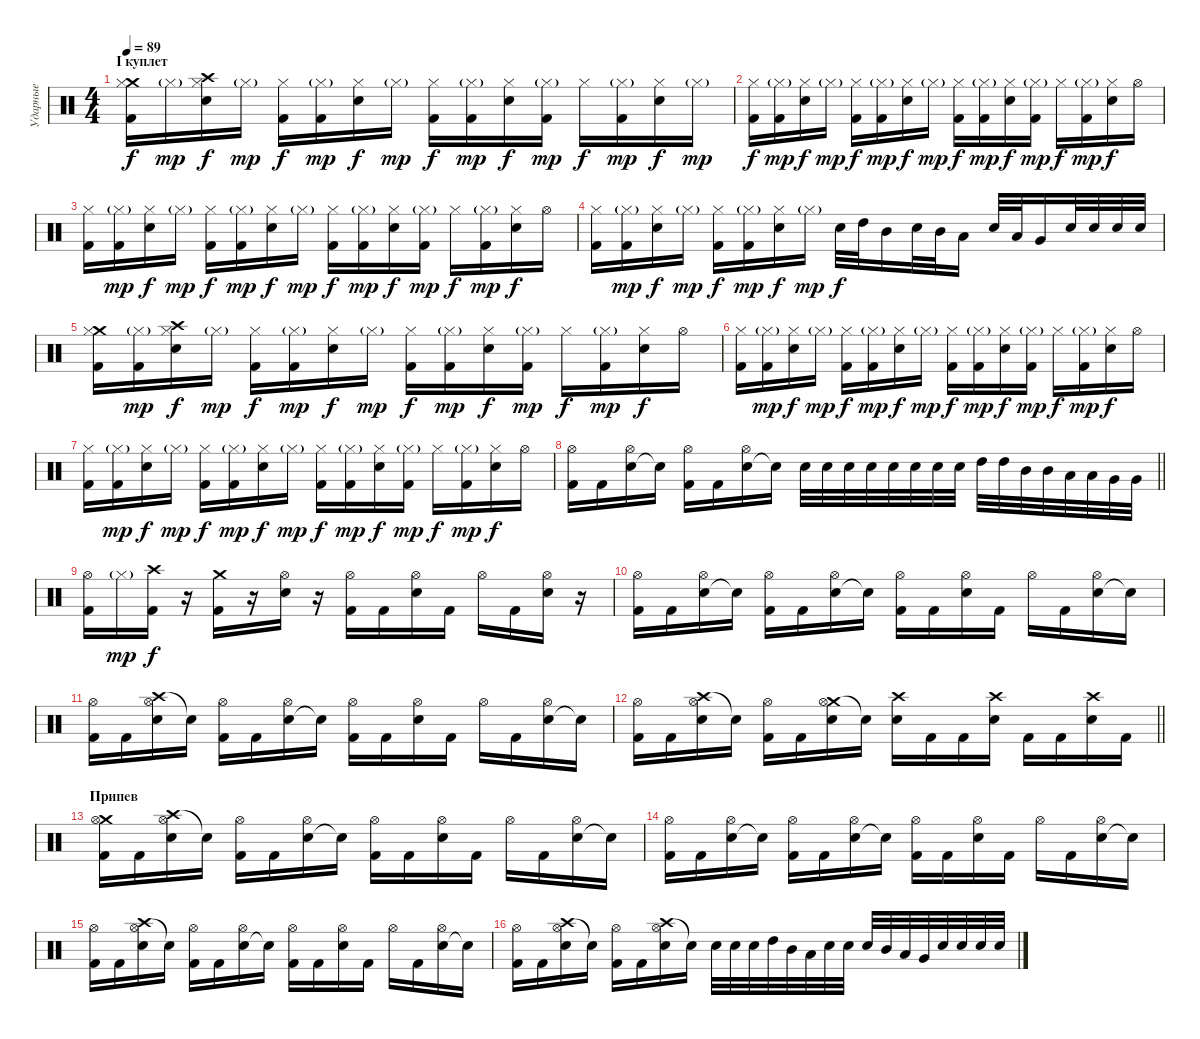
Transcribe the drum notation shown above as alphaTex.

\track ("Ударные" "Ударные") {instrument percussion}
\staff {score}
\articulation defaults
\ts (4 4)
\section ("" "I куплет")
\tempo 89
\clef neutral
\ks c
("Crash medium (hit)" "Hi-Hat (closed)" "Kick (hit) 2").16{dy f} "Hi-Hat (closed)"{g}.16{dy mp} ("Crash high (hit)" "Hi-Hat (closed)" "Electric Snare (hit)").16{dy f} "Hi-Hat (closed)"{g}.16{dy mp} ("Hi-Hat (closed)" "Kick (hit) 2").16{dy f} ("Hi-Hat (closed)"{g} "Kick (hit) 2").16{dy mp} ("Hi-Hat (closed)" "Electric Snare (hit)").16{dy f} "Hi-Hat (closed)"{g}.16{dy mp} ("Hi-Hat (closed)" "Kick (hit) 2").16{dy f} ("Hi-Hat (closed)"{g} "Kick (hit) 2").16{dy mp} ("Hi-Hat (closed)" "Electric Snare (hit)").16{dy f} ("Hi-Hat (closed)"{g} "Kick (hit) 2").16{dy mp} "Hi-Hat (closed)".16{dy f} ("Hi-Hat (closed)"{g} "Kick (hit) 2").16{dy mp} ("Hi-Hat (closed)" "Electric Snare (hit)").16{dy f} "Hi-Hat (closed)"{g}.16{dy mp} |
("Hi-Hat (closed)" "Kick (hit) 2").16{dy f} ("Hi-Hat (closed)"{g} "Kick (hit) 2").16{dy mp} ("Hi-Hat (closed)" "Electric Snare (hit)").16{dy f} "Hi-Hat (closed)"{g}.16{dy mp} ("Hi-Hat (closed)" "Kick (hit) 2").16{dy f} ("Hi-Hat (closed)"{g} "Kick (hit) 2").16{dy mp} ("Hi-Hat (closed)" "Electric Snare (hit)").16{dy f} "Hi-Hat (closed)"{g}.16{dy mp} ("Hi-Hat (closed)" "Kick (hit) 2").16{dy f} ("Hi-Hat (closed)"{g} "Kick (hit) 2").16{dy mp} ("Hi-Hat (closed)" "Electric Snare (hit)").16{dy f} ("Hi-Hat (closed)"{g} "Kick (hit) 2").16{dy mp} "Hi-Hat (closed)".16{dy f} ("Hi-Hat (closed)"{g} "Kick (hit) 2").16{dy mp} ("Hi-Hat (closed)" "Electric Snare (hit)").16{dy f} "Hi-Hat (open)".16 |
("Hi-Hat (closed)" "Kick (hit) 2").16 ("Hi-Hat (closed)"{g} "Kick (hit) 2").16{dy mp} ("Hi-Hat (closed)" "Electric Snare (hit)").16{dy f} "Hi-Hat (closed)"{g}.16{dy mp} ("Hi-Hat (closed)" "Kick (hit) 2").16{dy f} ("Hi-Hat (closed)"{g} "Kick (hit) 2").16{dy mp} ("Hi-Hat (closed)" "Electric Snare (hit)").16{dy f} "Hi-Hat (closed)"{g}.16{dy mp} ("Hi-Hat (closed)" "Kick (hit) 2").16{dy f} ("Hi-Hat (closed)"{g} "Kick (hit) 2").16{dy mp} ("Hi-Hat (closed)" "Electric Snare (hit)").16{dy f} ("Hi-Hat (closed)"{g} "Kick (hit) 2").16{dy mp} "Hi-Hat (closed)".16{dy f} ("Hi-Hat (closed)"{g} "Kick (hit) 2").16{dy mp} ("Hi-Hat (closed)" "Electric Snare (hit)").16{dy f} "Hi-Hat (open)".16 |
("Hi-Hat (closed)" "Kick (hit) 2").16 ("Hi-Hat (closed)"{g} "Kick (hit) 2").16{dy mp} ("Hi-Hat (closed)" "Electric Snare (hit)").16{dy f} "Hi-Hat (closed)"{g}.16{dy mp} ("Hi-Hat (closed)" "Kick (hit) 2").16{dy f} ("Hi-Hat (closed)"{g} "Kick (hit) 2").16{dy mp} ("Hi-Hat (closed)" "Electric Snare (hit)").16{dy f} "Hi-Hat (closed)"{g}.16{dy mp} "Electric Snare (hit)".32{dy f} "High Tom (hit)".32 "Mid Tom (hit)".16 "Electric Snare (hit)".32 "Mid Tom (hit)".32 "Low Tom (hit)".16 "Electric Snare (hit)".32 "Low Tom (hit)".32 "Very Low Tom (hit)".16 "Electric Snare (hit)".32 "Electric Snare (hit)".32 "Electric Snare (hit)".32 "Electric Snare (hit)".32 |
("Crash medium (hit)" "Hi-Hat (closed)" "Kick (hit) 2").16 ("Hi-Hat (closed)"{g} "Kick (hit) 2").16{dy mp} ("Crash high (hit)" "Hi-Hat (closed)" "Electric Snare (hit)").16{dy f} "Hi-Hat (closed)"{g}.16{dy mp} ("Hi-Hat (closed)" "Kick (hit) 2").16{dy f} ("Hi-Hat (closed)"{g} "Kick (hit) 2").16{dy mp} ("Hi-Hat (closed)" "Electric Snare (hit)").16{dy f} "Hi-Hat (closed)"{g}.16{dy mp} ("Hi-Hat (closed)" "Kick (hit) 2").16{dy f} ("Hi-Hat (closed)"{g} "Kick (hit) 2").16{dy mp} ("Hi-Hat (closed)" "Electric Snare (hit)").16{dy f} ("Hi-Hat (closed)"{g} "Kick (hit) 2").16{dy mp} "Hi-Hat (closed)".16{dy f} ("Hi-Hat (closed)"{g} "Kick (hit) 2").16{dy mp} ("Hi-Hat (closed)" "Electric Snare (hit)").16{dy f} "Hi-Hat (open)".16 |
("Hi-Hat (closed)" "Kick (hit) 2").16 ("Hi-Hat (closed)"{g} "Kick (hit) 2").16{dy mp} ("Hi-Hat (closed)" "Electric Snare (hit)").16{dy f} "Hi-Hat (closed)"{g}.16{dy mp} ("Hi-Hat (closed)" "Kick (hit) 2").16{dy f} ("Hi-Hat (closed)"{g} "Kick (hit) 2").16{dy mp} ("Hi-Hat (closed)" "Electric Snare (hit)").16{dy f} "Hi-Hat (closed)"{g}.16{dy mp} ("Hi-Hat (closed)" "Kick (hit) 2").16{dy f} ("Hi-Hat (closed)"{g} "Kick (hit) 2").16{dy mp} ("Hi-Hat (closed)" "Electric Snare (hit)").16{dy f} ("Hi-Hat (closed)"{g} "Kick (hit) 2").16{dy mp} "Hi-Hat (closed)".16{dy f} ("Hi-Hat (closed)"{g} "Kick (hit) 2").16{dy mp} ("Hi-Hat (closed)" "Electric Snare (hit)").16{dy f} "Hi-Hat (open)".16 |
("Hi-Hat (closed)" "Kick (hit) 2").16 ("Hi-Hat (closed)"{g} "Kick (hit) 2").16{dy mp} ("Hi-Hat (closed)" "Electric Snare (hit)").16{dy f} "Hi-Hat (closed)"{g}.16{dy mp} ("Hi-Hat (closed)" "Kick (hit) 2").16{dy f} ("Hi-Hat (closed)"{g} "Kick (hit) 2").16{dy mp} ("Hi-Hat (closed)" "Electric Snare (hit)").16{dy f} "Hi-Hat (closed)"{g}.16{dy mp} ("Hi-Hat (closed)" "Kick (hit) 2").16{dy f} ("Hi-Hat (closed)"{g} "Kick (hit) 2").16{dy mp} ("Hi-Hat (closed)" "Electric Snare (hit)").16{dy f} ("Hi-Hat (closed)"{g} "Kick (hit) 2").16{dy mp} "Hi-Hat (closed)".16{dy f} ("Hi-Hat (closed)"{g} "Kick (hit) 2").16{dy mp} ("Hi-Hat (closed)" "Electric Snare (hit)").16{dy f} "Hi-Hat (open)".16 |
\barLineRight lightlight
("Kick (hit) 2" "Hi-Hat (open)").16 "Kick (hit) 2".16 ("Electric Snare (hit)" "Hi-Hat (open)").16 "Snare (hit)"{t}.16 ("Kick (hit) 2" "Hi-Hat (open)").16 "Kick (hit) 2".16 ("Electric Snare (hit)" "Hi-Hat (open)").16 "Snare (hit)"{t}.16 "Electric Snare (hit)".32 "Electric Snare (hit)".32 "Electric Snare (hit)".32 "Electric Snare (hit)".32 "Electric Snare (hit)".32 "Electric Snare (hit)".32 "Electric Snare (hit)".32 "Electric Snare (hit)".32 "High Tom (hit)".32 "High Tom (hit)".32 "Mid Tom (hit)".32 "Mid Tom (hit)".32 "Low Tom (hit)".32 "Low Tom (hit)".32 "Very Low Tom (hit)".32 "Very Low Tom (hit)".32 |
("Hi-Hat (open)" "Kick (hit) 2").16 "Hi-Hat (closed)"{g}.16{dy mp} ("Crash high (hit)" "Kick (hit) 2").16{dy f} r.16 ("Crash medium (hit)" "Kick (hit) 2").16 r.16 ("Electric Snare (hit)" "Hi-Hat (open)").16 r.16 ("Kick (hit) 2" "Hi-Hat (open)").16 "Kick (hit) 2".16 ("Electric Snare (hit)" "Hi-Hat (open)").16 "Kick (hit) 2".16 "Hi-Hat (open)".16 "Kick (hit) 2".16 ("Electric Snare (hit)" "Hi-Hat (open)").16 r.16 |
("Kick (hit) 2" "Hi-Hat (open)").16 "Kick (hit) 2".16 ("Electric Snare (hit)" "Hi-Hat (open)").16 "Snare (hit)"{t}.16 ("Kick (hit) 2" "Hi-Hat (open)").16 "Kick (hit) 2".16 ("Electric Snare (hit)" "Hi-Hat (open)").16 "Snare (hit)"{t}.16 ("Kick (hit) 2" "Hi-Hat (open)").16 "Kick (hit) 2".16 ("Electric Snare (hit)" "Hi-Hat (open)").16 "Kick (hit) 2".16 "Hi-Hat (open)".16 "Kick (hit) 2".16 ("Electric Snare (hit)" "Hi-Hat (open)").16 "Snare (hit)"{t}.16 |
("Kick (hit) 2" "Hi-Hat (open)").16 "Kick (hit) 2".16 ("Crash high (hit)" "Electric Snare (hit)" "Hi-Hat (open)").16 "Snare (hit)"{t}.16 ("Kick (hit) 2" "Hi-Hat (open)").16 "Kick (hit) 2".16 ("Electric Snare (hit)" "Hi-Hat (open)").16 "Snare (hit)"{t}.16 ("Kick (hit) 2" "Hi-Hat (open)").16 "Kick (hit) 2".16 ("Electric Snare (hit)" "Hi-Hat (open)").16 "Kick (hit) 2".16 "Hi-Hat (open)".16 "Kick (hit) 2".16 ("Electric Snare (hit)" "Hi-Hat (open)").16 "Snare (hit)"{t}.16 |
\barLineRight lightlight
("Kick (hit) 2" "Hi-Hat (open)").16 "Kick (hit) 2".16 ("Crash high (hit)" "Electric Snare (hit)" "Hi-Hat (open)").16 "Snare (hit)"{t}.16 ("Kick (hit) 2" "Hi-Hat (open)").16 "Kick (hit) 2".16 ("Crash medium (hit)" "Electric Snare (hit)" "Hi-Hat (open)").16 "Snare (hit)"{t}.16 ("Crash high (hit)" "Electric Snare (hit)").16 "Kick (hit) 2".16 "Kick (hit) 2".16 ("Crash high (hit)" "Electric Snare (hit)").16 "Kick (hit) 2".16 "Kick (hit) 2".16 ("Crash high (hit)" "Electric Snare (hit)").16 "Kick (hit) 2".16 |
\section ("" "Припев")
("Crash medium (hit)" "Kick (hit) 2" "Hi-Hat (open)").16 "Kick (hit) 2".16 ("Crash high (hit)" "Electric Snare (hit)" "Hi-Hat (open)").16 "Snare (hit)"{t}.16 ("Kick (hit) 2" "Hi-Hat (open)").16 "Kick (hit) 2".16 ("Electric Snare (hit)" "Hi-Hat (open)").16 "Snare (hit)"{t}.16 ("Kick (hit) 2" "Hi-Hat (open)").16 "Kick (hit) 2".16 ("Electric Snare (hit)" "Hi-Hat (open)").16 "Kick (hit) 2".16 "Hi-Hat (open)".16 "Kick (hit) 2".16 ("Electric Snare (hit)" "Hi-Hat (open)").16 "Snare (hit)"{t}.16 |
("Kick (hit) 2" "Hi-Hat (open)").16 "Kick (hit) 2".16 ("Electric Snare (hit)" "Hi-Hat (open)").16 "Snare (hit)"{t}.16 ("Kick (hit) 2" "Hi-Hat (open)").16 "Kick (hit) 2".16 ("Electric Snare (hit)" "Hi-Hat (open)").16 "Snare (hit)"{t}.16 ("Kick (hit) 2" "Hi-Hat (open)").16 "Kick (hit) 2".16 ("Electric Snare (hit)" "Hi-Hat (open)").16 "Kick (hit) 2".16 "Hi-Hat (open)".16 "Kick (hit) 2".16 ("Electric Snare (hit)" "Hi-Hat (open)").16 "Snare (hit)"{t}.16 |
("Kick (hit) 2" "Hi-Hat (open)").16 "Kick (hit) 2".16 ("Crash high (hit)" "Electric Snare (hit)" "Hi-Hat (open)").16 "Snare (hit)"{t}.16 ("Kick (hit) 2" "Hi-Hat (open)").16 "Kick (hit) 2".16 ("Electric Snare (hit)" "Hi-Hat (open)").16 "Snare (hit)"{t}.16 ("Kick (hit) 2" "Hi-Hat (open)").16 "Kick (hit) 2".16 ("Electric Snare (hit)" "Hi-Hat (open)").16 "Kick (hit) 2".16 "Hi-Hat (open)".16 "Kick (hit) 2".16 ("Electric Snare (hit)" "Hi-Hat (open)").16 "Snare (hit)"{t}.16 |
("Kick (hit) 2" "Hi-Hat (open)").16 "Kick (hit) 2".16 ("Crash high (hit)" "Electric Snare (hit)" "Hi-Hat (open)").16 "Snare (hit)"{t}.16 ("Kick (hit) 2" "Hi-Hat (open)").16 "Kick (hit) 2".16 ("Crash high (hit)" "Electric Snare (hit)" "Hi-Hat (open)").16 "Snare (hit)"{t}.16 "Electric Snare (hit)".32 "Electric Snare (hit)".32 "Electric Snare (hit)".32 "High Tom (hit)".32 "Mid Tom (hit)".32 "Low Tom (hit)".32 "Electric Snare (hit)".32 "Electric Snare (hit)".32 "Electric Snare (hit)".32 "Mid Tom (hit)".32 "Low Tom (hit)".32 "Very Low Tom (hit)".32 "Electric Snare (hit)".32 "Electric Snare (hit)".32 "Electric Snare (hit)".32 "Electric Snare (hit)".32
